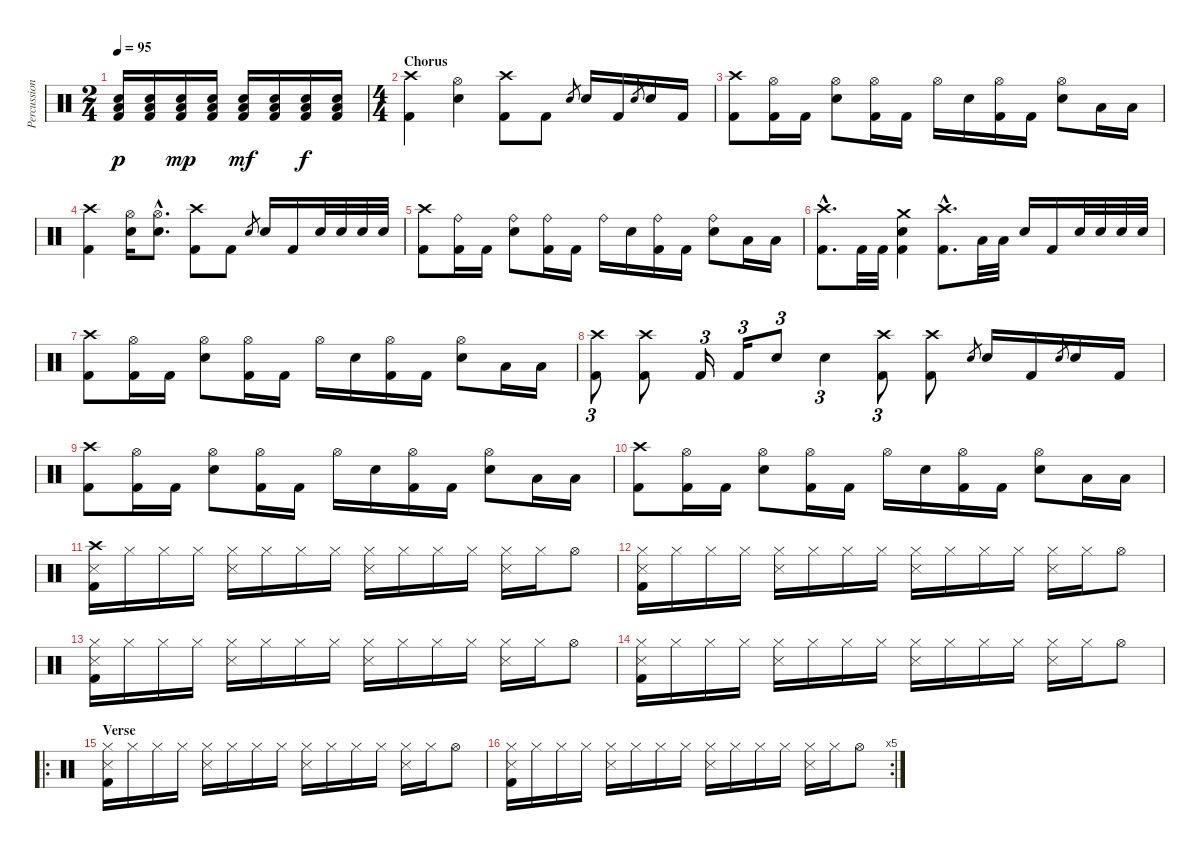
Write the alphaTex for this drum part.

\track ("Percussion" "Percussion") {instrument percussion}
\staff {score}
\articulation defaults
\ts (2 4)
\tempo 95
\clef neutral
\ks c
("Snare (hit) 2" "Low Floor Tom (hit)" "Kick (hit) 2").16{dy p} ("Snare (hit) 2" "Low Floor Tom (hit)" "Kick (hit) 2").16 ("Snare (hit) 2" "Low Floor Tom (hit)" "Kick (hit) 2").16{dy mp} ("Snare (hit) 2" "Low Floor Tom (hit)" "Kick (hit) 2").16 ("Snare (hit) 2" "Low Floor Tom (hit)" "Kick (hit) 2").16{dy mf} ("Snare (hit) 2" "Low Floor Tom (hit)" "Kick (hit) 2").16 ("Snare (hit) 2" "Low Floor Tom (hit)" "Kick (hit) 2").16{dy f} ("Snare (hit) 2" "Low Floor Tom (hit)" "Kick (hit) 2").16 |
\ts (4 4)
\section ("" "Chorus")
("Crash high (hit)" "Kick (hit) 2").4 ("Hi-Hat (open)" "Snare (hit) 2").4 ("Crash high (hit)" "Kick (hit) 2").8 "Kick (hit) 2".8 "Snare (hit) 2".8{gr} "Snare (hit) 2".16 "Kick (hit) 2".16 "Snare (hit) 2".8{gr} "Snare (hit) 2".16 "Kick (hit) 2".16 |
("Crash high (hit)" "Kick (hit) 2").8 ("Hi-Hat (open)" "Kick (hit) 2").16 "Kick (hit) 2".16 ("Hi-Hat (open)" "Snare (hit) 2").8 ("Hi-Hat (open)" "Kick (hit) 2").16 "Kick (hit) 2".16 "Hi-Hat (open)".16 "Snare (hit) 2".16 ("Hi-Hat (open)" "Kick (hit) 2").16 "Kick (hit) 2".16 ("Hi-Hat (open)" "Snare (hit) 2").8 "Low Floor Tom (hit)".16 "Low Floor Tom (hit)".16 |
("Crash high (hit)" "Kick (hit) 2").4 ("Hi-Hat (open)" "Snare (hit) 2").16 ("Hi-Hat (open)"{hac} "Snare (hit) 2"{hac}).8{d} ("Crash high (hit)" "Kick (hit) 2").8 "Kick (hit) 2".8 "Snare (hit) 2".8{gr} "Snare (hit) 2".16 "Kick (hit) 2".16 "Snare (hit) 2".32 "Snare (hit) 2".32 "Snare (hit) 2".32 "Snare (hit) 2".32 |
("Crash high (hit)" "Kick (hit) 2").8 ("Ride (bell)" "Kick (hit) 2").16 "Kick (hit) 2".16 ("Ride (bell)" "Snare (hit) 2").8 ("Ride (bell)" "Kick (hit) 2").16 "Kick (hit) 2".16 "Ride (bell)".16 "Snare (hit) 2".16 ("Ride (bell)" "Kick (hit) 2").16 "Kick (hit) 2".16 ("Ride (bell)" "Snare (hit) 2").8 "Low Floor Tom (hit)".16 "Low Floor Tom (hit)".16 |
("Crash high (hit)"{hac} "Kick (hit) 2"{hac}).8{d} "Kick (hit) 2".32 "Kick (hit) 2".32 ("Crash medium (hit)" "Snare (hit) 2" "Kick (hit) 2").4 ("Crash high (hit)"{hac} "Kick (hit) 2"{hac}).8{d} "Low Tom (hit)".32 "Low Floor Tom (hit)".32 "Snare (hit) 2".16 "Kick (hit) 2".16 "Snare (hit) 2".32 "Snare (hit) 2".32 "Snare (hit) 2".32 "Snare (hit) 2".32 |
("Crash high (hit)" "Kick (hit) 2").8 ("Hi-Hat (open)" "Kick (hit) 2").16 "Kick (hit) 2".16 ("Hi-Hat (open)" "Snare (hit) 2").8 ("Hi-Hat (open)" "Kick (hit) 2").16 "Kick (hit) 2".16 "Hi-Hat (open)".16 "Snare (hit) 2".16 ("Hi-Hat (open)" "Kick (hit) 2").16 "Kick (hit) 2".16 ("Hi-Hat (open)" "Snare (hit) 2").8 "Low Floor Tom (hit)".16 "Low Floor Tom (hit)".16 |
("Crash high (hit)" "Kick (hit) 2").8{tu (3 2)} ("Crash high (hit)" "Kick (hit) 2").8 "Kick (hit) 2".16{tu (3 2)} "Kick (hit) 2".16{tu (3 2)} "Snare (hit) 2".8{tu (3 2)} "Snare (hit) 2".4{tu (3 2)} ("Crash high (hit)" "Kick (hit) 2").8{tu (3 2)} ("Crash high (hit)" "Kick (hit) 2").8 "Snare (hit) 2".8{gr} "Snare (hit) 2".16 "Kick (hit) 2".16 "Snare (hit) 2".8{gr} "Snare (hit) 2".16 "Kick (hit) 2".16 |
("Crash high (hit)" "Kick (hit) 2").8 ("Hi-Hat (open)" "Kick (hit) 2").16 "Kick (hit) 2".16 ("Hi-Hat (open)" "Snare (hit) 2").8 ("Hi-Hat (open)" "Kick (hit) 2").16 "Kick (hit) 2".16 "Hi-Hat (open)".16 "Snare (hit) 2".16 ("Hi-Hat (open)" "Kick (hit) 2").16 "Kick (hit) 2".16 ("Hi-Hat (open)" "Snare (hit) 2").8 "Low Floor Tom (hit)".16 "Low Floor Tom (hit)".16 |
("Crash high (hit)" "Kick (hit) 2").8 ("Hi-Hat (open)" "Kick (hit) 2").16 "Kick (hit) 2".16 ("Hi-Hat (open)" "Snare (hit) 2").8 ("Hi-Hat (open)" "Kick (hit) 2").16 "Kick (hit) 2".16 "Hi-Hat (open)".16 "Snare (hit) 2".16 ("Hi-Hat (open)" "Kick (hit) 2").16 "Kick (hit) 2".16 ("Hi-Hat (open)" "Snare (hit) 2").8 "Low Floor Tom (hit)".16 "Low Floor Tom (hit)".16 |
("Crash high (hit)" "Snare (side stick) 3" "Kick (hit) 2").16 "Hi-Hat (closed)".16 "Hi-Hat (closed)".16 "Hi-Hat (closed)".16 ("Hi-Hat (closed)" "Snare (side stick) 3").16 "Hi-Hat (closed)".16 "Hi-Hat (closed)".16 "Hi-Hat (closed)".16 ("Hi-Hat (closed)" "Snare (side stick) 3").16 "Hi-Hat (closed)".16 "Hi-Hat (closed)".16 "Hi-Hat (closed)".16 ("Hi-Hat (closed)" "Snare (side stick) 3").16 "Hi-Hat (closed)".16 "Hi-Hat (open)".8 |
("Hi-Hat (closed)" "Snare (side stick) 3" "Kick (hit) 2").16 "Hi-Hat (closed)".16 "Hi-Hat (closed)".16 "Hi-Hat (closed)".16 ("Hi-Hat (closed)" "Snare (side stick) 3").16 "Hi-Hat (closed)".16 "Hi-Hat (closed)".16 "Hi-Hat (closed)".16 ("Hi-Hat (closed)" "Snare (side stick) 3").16 "Hi-Hat (closed)".16 "Hi-Hat (closed)".16 "Hi-Hat (closed)".16 ("Hi-Hat (closed)" "Snare (side stick) 3").16 "Hi-Hat (closed)".16 "Hi-Hat (open)".8 |
("Hi-Hat (closed)" "Snare (side stick) 3" "Kick (hit) 2").16 "Hi-Hat (closed)".16 "Hi-Hat (closed)".16 "Hi-Hat (closed)".16 ("Hi-Hat (closed)" "Snare (side stick) 3").16 "Hi-Hat (closed)".16 "Hi-Hat (closed)".16 "Hi-Hat (closed)".16 ("Hi-Hat (closed)" "Snare (side stick) 3").16 "Hi-Hat (closed)".16 "Hi-Hat (closed)".16 "Hi-Hat (closed)".16 ("Hi-Hat (closed)" "Snare (side stick) 3").16 "Hi-Hat (closed)".16 "Hi-Hat (open)".8 |
("Hi-Hat (closed)" "Snare (side stick) 3" "Kick (hit) 2").16 "Hi-Hat (closed)".16 "Hi-Hat (closed)".16 "Hi-Hat (closed)".16 ("Hi-Hat (closed)" "Snare (side stick) 3").16 "Hi-Hat (closed)".16 "Hi-Hat (closed)".16 "Hi-Hat (closed)".16 ("Hi-Hat (closed)" "Snare (side stick) 3").16 "Hi-Hat (closed)".16 "Hi-Hat (closed)".16 "Hi-Hat (closed)".16 ("Hi-Hat (closed)" "Snare (side stick) 3").16 "Hi-Hat (closed)".16 "Hi-Hat (open)".8 |
\ro
\section ("" "Verse")
("Hi-Hat (closed)" "Snare (side stick) 3" "Kick (hit) 2").16 "Hi-Hat (closed)".16 "Hi-Hat (closed)".16 "Hi-Hat (closed)".16 ("Hi-Hat (closed)" "Snare (side stick) 3").16 "Hi-Hat (closed)".16 "Hi-Hat (closed)".16 "Hi-Hat (closed)".16 ("Hi-Hat (closed)" "Snare (side stick) 3").16 "Hi-Hat (closed)".16 "Hi-Hat (closed)".16 "Hi-Hat (closed)".16 ("Hi-Hat (closed)" "Snare (side stick) 3").16 "Hi-Hat (closed)".16 "Hi-Hat (open)".8 |
\rc 5
("Hi-Hat (closed)" "Snare (side stick) 3" "Kick (hit) 2").16 "Hi-Hat (closed)".16 "Hi-Hat (closed)".16 "Hi-Hat (closed)".16 ("Hi-Hat (closed)" "Snare (side stick) 3").16 "Hi-Hat (closed)".16 "Hi-Hat (closed)".16 "Hi-Hat (closed)".16 ("Hi-Hat (closed)" "Snare (side stick) 3").16 "Hi-Hat (closed)".16 "Hi-Hat (closed)".16 "Hi-Hat (closed)".16 ("Hi-Hat (closed)" "Snare (side stick) 3").16 "Hi-Hat (closed)".16 "Hi-Hat (open)".8
